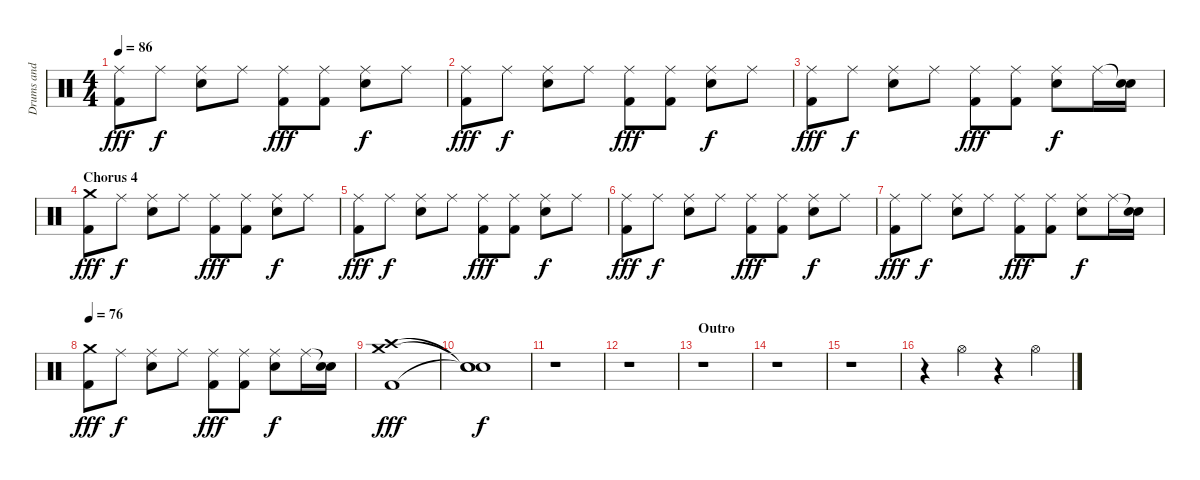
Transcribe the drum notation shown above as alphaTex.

\track ("Drums and Percussion" "Drums and ") {instrument percussion}
\staff {score}
\articulation defaults
\ts (4 4)
\tempo 86
\clef neutral
\ks c
("Ride (middle)" "Kick (hit) 2").8{dy fff} "Ride (middle)".8{dy f} ("Ride (middle)" "Snare (hit) 2").8 "Ride (middle)".8 ("Ride (middle)" "Kick (hit) 2").8{dy fff} ("Ride (middle)" "Kick (hit) 2").8 ("Ride (middle)" "Snare (hit) 2").8{dy f} "Ride (middle)".8 |
("Ride (middle)" "Kick (hit) 2").8{dy fff} "Ride (middle)".8{dy f} ("Ride (middle)" "Snare (hit) 2").8 "Ride (middle)".8 ("Ride (middle)" "Kick (hit) 2").8{dy fff} ("Ride (middle)" "Kick (hit) 2").8 ("Ride (middle)" "Snare (hit) 2").8{dy f} "Ride (middle)".8 |
("Ride (middle)" "Kick (hit) 2").8{dy fff} "Ride (middle)".8{dy f} ("Ride (middle)" "Snare (hit) 2").8 "Ride (middle)".8 ("Ride (middle)" "Kick (hit) 2").8{dy fff} ("Ride (middle)" "Kick (hit) 2").8 ("Ride (middle)" "Snare (hit) 2").8{dy f} "Ride (middle)".16 ("Snare (hit)"{t} "Snare (hit) 2").16 |
\section ("" "Chorus 4")
("Crash medium (hit)" "Kick (hit) 2").8{dy fff} "Ride (middle)".8{dy f} ("Ride (middle)" "Snare (hit) 2").8 "Ride (middle)".8 ("Ride (middle)" "Kick (hit) 2").8{dy fff} ("Ride (middle)" "Kick (hit) 2").8 ("Ride (middle)" "Snare (hit) 2").8{dy f} "Ride (middle)".8 |
("Ride (middle)" "Kick (hit) 2").8{dy fff} "Ride (middle)".8{dy f} ("Ride (middle)" "Snare (hit) 2").8 "Ride (middle)".8 ("Ride (middle)" "Kick (hit) 2").8{dy fff} ("Ride (middle)" "Kick (hit) 2").8 ("Ride (middle)" "Snare (hit) 2").8{dy f} "Ride (middle)".8 |
("Ride (middle)" "Kick (hit) 2").8{dy fff} "Ride (middle)".8{dy f} ("Ride (middle)" "Snare (hit) 2").8 "Ride (middle)".8 ("Ride (middle)" "Kick (hit) 2").8{dy fff} ("Ride (middle)" "Kick (hit) 2").8 ("Ride (middle)" "Snare (hit) 2").8{dy f} "Ride (middle)".8 |
("Ride (middle)" "Kick (hit) 2").8{dy fff} "Ride (middle)".8{dy f} ("Ride (middle)" "Snare (hit) 2").8 "Ride (middle)".8 ("Ride (middle)" "Kick (hit) 2").8{dy fff} ("Ride (middle)" "Kick (hit) 2").8 ("Ride (middle)" "Snare (hit) 2").8{dy f} "Ride (middle)".16 ("Snare (hit)"{t} "Snare (hit) 2").16 |
\tempo 76
("Crash medium (hit)" "Kick (hit) 2").8{dy fff} "Ride (middle)".8{dy f} ("Ride (middle)" "Snare (hit) 2").8 "Ride (middle)".8 ("Ride (middle)" "Kick (hit) 2").8{dy fff} ("Ride (middle)" "Kick (hit) 2").8 ("Ride (middle)" "Snare (hit) 2").8{dy f} "Ride (middle)".16 ("Snare (hit)"{t} "Snare (hit) 2").16 |
("Crash medium (hit)" "Crash high (hit)" "Kick (hit) 2").1{dy fff} |
("Snare (hit)"{t} "Snare (hit)"{t} "Snare (hit)"{t}).1{dy f} |
r.1 |
r.1 |
\section ("" "Outro")
r.1 |
r.1 |
r.1 |
r.4 "Hi-Hat (open)".4 r.4 "Hi-Hat (open)".4
